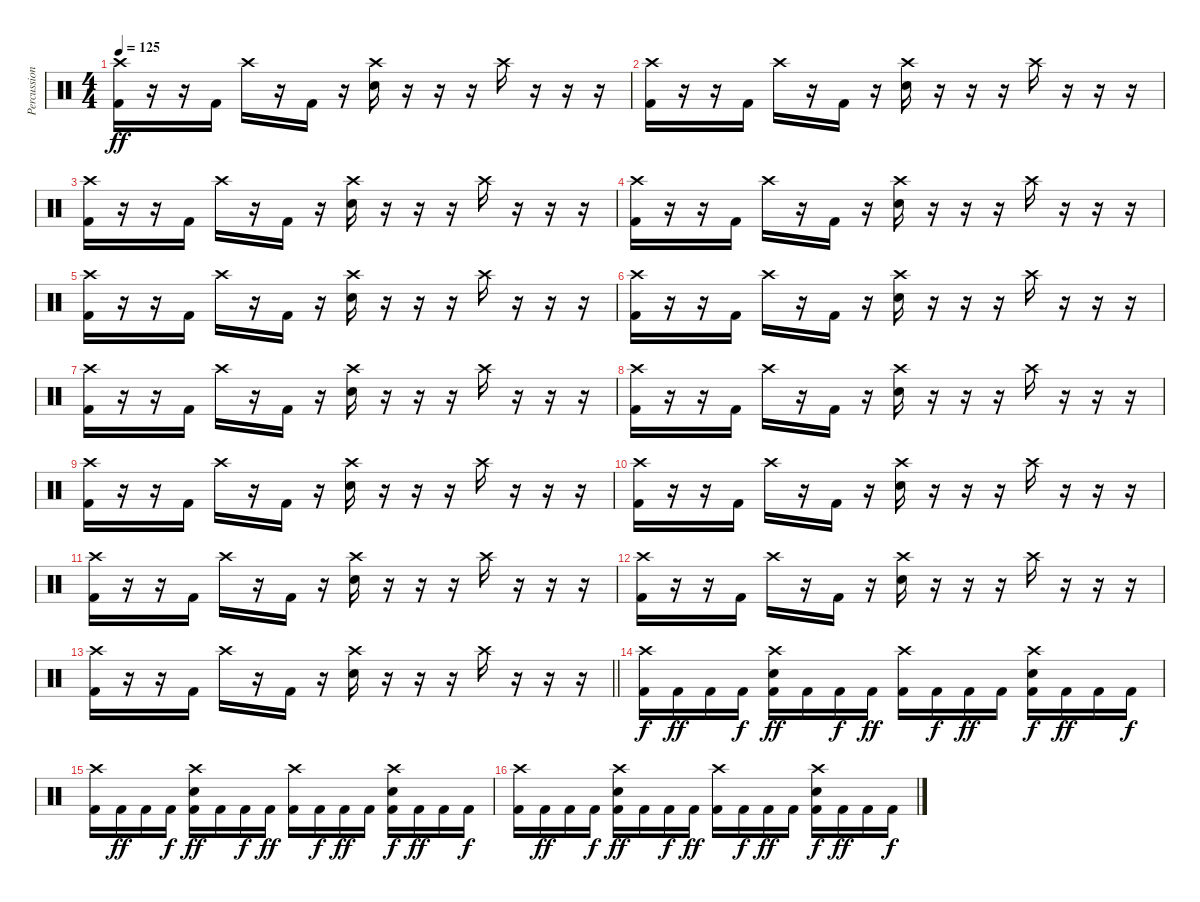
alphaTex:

\track ("Percussion" "Percussion") {instrument percussion}
\staff {score}
\articulation defaults
\ts (4 4)
\tempo 125
\clef neutral
\ks c
("Crash high (hit)" "Kick (hit) 2").16{dy ff} r.16 r.16 "Kick (hit) 2".16 "Crash high (hit)".16 r.16 "Kick (hit) 2".16 r.16 ("Crash high (hit)" "Electric Snare (hit)").16 r.16 r.16 r.16 "Crash high (hit)".16 r.16 r.16 r.16 |
("Crash high (hit)" "Kick (hit) 2").16 r.16 r.16 "Kick (hit) 2".16 "Crash high (hit)".16 r.16 "Kick (hit) 2".16 r.16 ("Crash high (hit)" "Electric Snare (hit)").16 r.16 r.16 r.16 "Crash high (hit)".16 r.16 r.16 r.16 |
("Crash high (hit)" "Kick (hit) 2").16 r.16 r.16 "Kick (hit) 2".16 "Crash high (hit)".16 r.16 "Kick (hit) 2".16 r.16 ("Crash high (hit)" "Electric Snare (hit)").16 r.16 r.16 r.16 "Crash high (hit)".16 r.16 r.16 r.16 |
("Crash high (hit)" "Kick (hit) 2").16 r.16 r.16 "Kick (hit) 2".16 "Crash high (hit)".16 r.16 "Kick (hit) 2".16 r.16 ("Crash high (hit)" "Electric Snare (hit)").16 r.16 r.16 r.16 "Crash high (hit)".16 r.16 r.16 r.16 |
("Crash high (hit)" "Kick (hit) 2").16 r.16 r.16 "Kick (hit) 2".16 "Crash high (hit)".16 r.16 "Kick (hit) 2".16 r.16 ("Crash high (hit)" "Electric Snare (hit)").16 r.16 r.16 r.16 "Crash high (hit)".16 r.16 r.16 r.16 |
("Crash high (hit)" "Kick (hit) 2").16 r.16 r.16 "Kick (hit) 2".16 "Crash high (hit)".16 r.16 "Kick (hit) 2".16 r.16 ("Crash high (hit)" "Electric Snare (hit)").16 r.16 r.16 r.16 "Crash high (hit)".16 r.16 r.16 r.16 |
("Crash high (hit)" "Kick (hit) 2").16 r.16 r.16 "Kick (hit) 2".16 "Crash high (hit)".16 r.16 "Kick (hit) 2".16 r.16 ("Crash high (hit)" "Electric Snare (hit)").16 r.16 r.16 r.16 "Crash high (hit)".16 r.16 r.16 r.16 |
("Crash high (hit)" "Kick (hit) 2").16 r.16 r.16 "Kick (hit) 2".16 "Crash high (hit)".16 r.16 "Kick (hit) 2".16 r.16 ("Crash high (hit)" "Electric Snare (hit)").16 r.16 r.16 r.16 "Crash high (hit)".16 r.16 r.16 r.16 |
("Crash high (hit)" "Kick (hit) 2").16 r.16 r.16 "Kick (hit) 2".16 "Crash high (hit)".16 r.16 "Kick (hit) 2".16 r.16 ("Crash high (hit)" "Electric Snare (hit)").16 r.16 r.16 r.16 "Crash high (hit)".16 r.16 r.16 r.16 |
("Crash high (hit)" "Kick (hit) 2").16 r.16 r.16 "Kick (hit) 2".16 "Crash high (hit)".16 r.16 "Kick (hit) 2".16 r.16 ("Crash high (hit)" "Electric Snare (hit)").16 r.16 r.16 r.16 "Crash high (hit)".16 r.16 r.16 r.16 |
("Crash high (hit)" "Kick (hit) 2").16 r.16 r.16 "Kick (hit) 2".16 "Crash high (hit)".16 r.16 "Kick (hit) 2".16 r.16 ("Crash high (hit)" "Electric Snare (hit)").16 r.16 r.16 r.16 "Crash high (hit)".16 r.16 r.16 r.16 |
("Crash high (hit)" "Kick (hit) 2").16 r.16 r.16 "Kick (hit) 2".16 "Crash high (hit)".16 r.16 "Kick (hit) 2".16 r.16 ("Crash high (hit)" "Electric Snare (hit)").16 r.16 r.16 r.16 "Crash high (hit)".16 r.16 r.16 r.16 |
\barLineRight lightlight
("Crash high (hit)" "Kick (hit) 2").16 r.16 r.16 "Kick (hit) 2".16 "Crash high (hit)".16 r.16 "Kick (hit) 2".16 r.16 ("Crash high (hit)" "Electric Snare (hit)").16 r.16 r.16 r.16 "Crash high (hit)".16 r.16 r.16 r.16 |
("Crash high (hit)" "Kick (hit) 2").16{dy f} "Kick (hit) 2".16{dy ff} "Kick (hit) 2".16 "Kick (hit) 2".16{dy f} ("Crash high (hit)" "Electric Snare (hit)" "Kick (hit) 2").16{dy ff} "Kick (hit) 2".16 "Kick (hit) 2".16{dy f} "Kick (hit) 2".16{dy ff} ("Crash high (hit)" "Kick (hit) 2").16 "Kick (hit) 2".16{dy f} "Kick (hit) 2".16{dy ff} "Kick (hit) 2".16 ("Crash high (hit)" "Electric Snare (hit)" "Kick (hit) 2").16{dy f} "Kick (hit) 2".16{dy ff} "Kick (hit) 2".16 "Kick (hit) 2".16{dy f} |
("Crash high (hit)" "Kick (hit) 2").16 "Kick (hit) 2".16{dy ff} "Kick (hit) 2".16 "Kick (hit) 2".16{dy f} ("Crash high (hit)" "Electric Snare (hit)" "Kick (hit) 2").16{dy ff} "Kick (hit) 2".16 "Kick (hit) 2".16{dy f} "Kick (hit) 2".16{dy ff} ("Crash high (hit)" "Kick (hit) 2").16 "Kick (hit) 2".16{dy f} "Kick (hit) 2".16{dy ff} "Kick (hit) 2".16 ("Crash high (hit)" "Electric Snare (hit)" "Kick (hit) 2").16{dy f} "Kick (hit) 2".16{dy ff} "Kick (hit) 2".16 "Kick (hit) 2".16{dy f} |
("Crash high (hit)" "Kick (hit) 2").16 "Kick (hit) 2".16{dy ff} "Kick (hit) 2".16 "Kick (hit) 2".16{dy f} ("Crash high (hit)" "Electric Snare (hit)" "Kick (hit) 2").16{dy ff} "Kick (hit) 2".16 "Kick (hit) 2".16{dy f} "Kick (hit) 2".16{dy ff} ("Crash high (hit)" "Kick (hit) 2").16 "Kick (hit) 2".16{dy f} "Kick (hit) 2".16{dy ff} "Kick (hit) 2".16 ("Crash high (hit)" "Electric Snare (hit)" "Kick (hit) 2").16{dy f} "Kick (hit) 2".16{dy ff} "Kick (hit) 2".16 "Kick (hit) 2".16{dy f}
